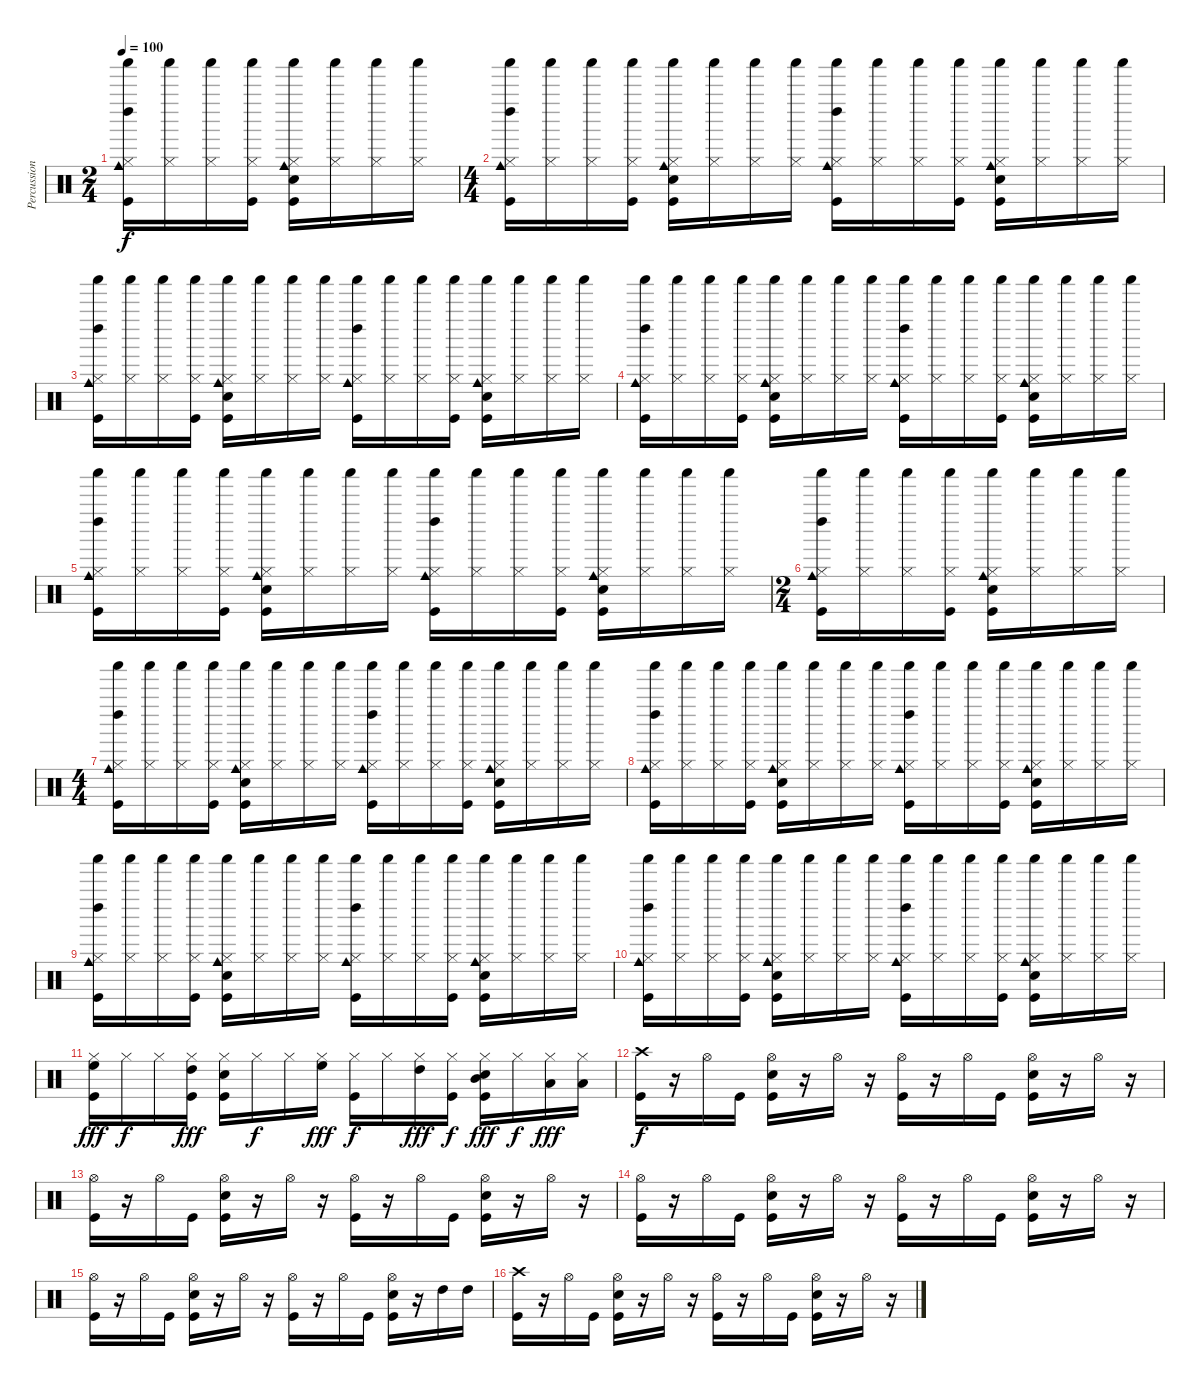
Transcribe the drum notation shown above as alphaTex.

\track ("Percussions" "Percussion") {instrument percussion}
\staff {score}
\articulation defaults
\ts (2 4)
\tempo 100
\clef neutral
\ks c
("Hi-Hat (closed)" "Kick (hit)" "Left Maraca (hit)" "Cowbell medium (hit)" "Shaker (hit)").16{dy f} ("Hi-Hat (closed)" "Shaker (hit)").16 ("Hi-Hat (closed)" "Shaker (hit)").16 ("Hi-Hat (closed)" "Kick (hit)" "Shaker (hit)").16 ("Hi-Hat (closed)" "Electric Snare (hit)" "Kick (hit)" "Cowbell medium (hit)" "Shaker (hit)").16 ("Hi-Hat (closed)" "Shaker (hit)").16 ("Hi-Hat (closed)" "Shaker (hit)").16 ("Hi-Hat (closed)" "Shaker (hit)").16 |
\ts (4 4)
("Hi-Hat (closed)" "Kick (hit)" "Left Maraca (hit)" "Cowbell medium (hit)" "Shaker (hit)").16 ("Hi-Hat (closed)" "Shaker (hit)").16 ("Hi-Hat (closed)" "Shaker (hit)").16 ("Hi-Hat (closed)" "Kick (hit)" "Shaker (hit)").16 ("Hi-Hat (closed)" "Electric Snare (hit)" "Kick (hit)" "Cowbell medium (hit)" "Shaker (hit)").16 ("Hi-Hat (closed)" "Shaker (hit)").16 ("Hi-Hat (closed)" "Shaker (hit)").16 ("Hi-Hat (closed)" "Shaker (hit)").16 ("Hi-Hat (closed)" "Kick (hit)" "Left Maraca (hit)" "Cowbell medium (hit)" "Shaker (hit)").16 ("Hi-Hat (closed)" "Shaker (hit)").16 ("Hi-Hat (closed)" "Shaker (hit)").16 ("Hi-Hat (closed)" "Kick (hit)" "Shaker (hit)").16 ("Hi-Hat (closed)" "Electric Snare (hit)" "Kick (hit)" "Cowbell medium (hit)" "Shaker (hit)").16 ("Hi-Hat (closed)" "Shaker (hit)").16 ("Hi-Hat (closed)" "Shaker (hit)").16 ("Hi-Hat (closed)" "Shaker (hit)").16 |
("Hi-Hat (closed)" "Kick (hit)" "Left Maraca (hit)" "Cowbell medium (hit)" "Shaker (hit)").16 ("Hi-Hat (closed)" "Shaker (hit)").16 ("Hi-Hat (closed)" "Shaker (hit)").16 ("Hi-Hat (closed)" "Kick (hit)" "Shaker (hit)").16 ("Hi-Hat (closed)" "Electric Snare (hit)" "Kick (hit)" "Cowbell medium (hit)" "Shaker (hit)").16 ("Hi-Hat (closed)" "Shaker (hit)").16 ("Hi-Hat (closed)" "Shaker (hit)").16 ("Hi-Hat (closed)" "Shaker (hit)").16 ("Hi-Hat (closed)" "Kick (hit)" "Left Maraca (hit)" "Cowbell medium (hit)" "Shaker (hit)").16 ("Hi-Hat (closed)" "Shaker (hit)").16 ("Hi-Hat (closed)" "Shaker (hit)").16 ("Hi-Hat (closed)" "Kick (hit)" "Shaker (hit)").16 ("Hi-Hat (closed)" "Electric Snare (hit)" "Kick (hit)" "Cowbell medium (hit)" "Shaker (hit)").16 ("Hi-Hat (closed)" "Shaker (hit)").16 ("Hi-Hat (closed)" "Shaker (hit)").16 ("Hi-Hat (closed)" "Shaker (hit)").16 |
("Hi-Hat (closed)" "Kick (hit)" "Left Maraca (hit)" "Cowbell medium (hit)" "Shaker (hit)").16 ("Hi-Hat (closed)" "Shaker (hit)").16 ("Hi-Hat (closed)" "Shaker (hit)").16 ("Hi-Hat (closed)" "Kick (hit)" "Shaker (hit)").16 ("Hi-Hat (closed)" "Electric Snare (hit)" "Kick (hit)" "Cowbell medium (hit)" "Shaker (hit)").16 ("Hi-Hat (closed)" "Shaker (hit)").16 ("Hi-Hat (closed)" "Shaker (hit)").16 ("Hi-Hat (closed)" "Shaker (hit)").16 ("Hi-Hat (closed)" "Kick (hit)" "Left Maraca (hit)" "Cowbell medium (hit)" "Shaker (hit)").16 ("Hi-Hat (closed)" "Shaker (hit)").16 ("Hi-Hat (closed)" "Shaker (hit)").16 ("Hi-Hat (closed)" "Kick (hit)" "Shaker (hit)").16 ("Hi-Hat (closed)" "Electric Snare (hit)" "Kick (hit)" "Cowbell medium (hit)" "Shaker (hit)").16 ("Hi-Hat (closed)" "Shaker (hit)").16 ("Hi-Hat (closed)" "Shaker (hit)").16 ("Hi-Hat (closed)" "Shaker (hit)").16 |
("Hi-Hat (closed)" "Kick (hit)" "Left Maraca (hit)" "Cowbell medium (hit)" "Shaker (hit)").16 ("Hi-Hat (closed)" "Shaker (hit)").16 ("Hi-Hat (closed)" "Shaker (hit)").16 ("Hi-Hat (closed)" "Kick (hit)" "Shaker (hit)").16 ("Hi-Hat (closed)" "Electric Snare (hit)" "Kick (hit)" "Cowbell medium (hit)" "Shaker (hit)").16 ("Hi-Hat (closed)" "Shaker (hit)").16 ("Hi-Hat (closed)" "Shaker (hit)").16 ("Hi-Hat (closed)" "Shaker (hit)").16 ("Hi-Hat (closed)" "Kick (hit)" "Left Maraca (hit)" "Cowbell medium (hit)" "Shaker (hit)").16 ("Hi-Hat (closed)" "Shaker (hit)").16 ("Hi-Hat (closed)" "Shaker (hit)").16 ("Hi-Hat (closed)" "Kick (hit)" "Shaker (hit)").16 ("Hi-Hat (closed)" "Electric Snare (hit)" "Kick (hit)" "Cowbell medium (hit)" "Shaker (hit)").16 ("Hi-Hat (closed)" "Shaker (hit)").16 ("Hi-Hat (closed)" "Shaker (hit)").16 ("Hi-Hat (closed)" "Shaker (hit)").16 |
\ts (2 4)
("Hi-Hat (closed)" "Kick (hit)" "Left Maraca (hit)" "Cowbell medium (hit)" "Shaker (hit)").16 ("Hi-Hat (closed)" "Shaker (hit)").16 ("Hi-Hat (closed)" "Shaker (hit)").16 ("Hi-Hat (closed)" "Kick (hit)" "Shaker (hit)").16 ("Hi-Hat (closed)" "Electric Snare (hit)" "Kick (hit)" "Cowbell medium (hit)" "Shaker (hit)").16 ("Hi-Hat (closed)" "Shaker (hit)").16 ("Hi-Hat (closed)" "Shaker (hit)").16 ("Hi-Hat (closed)" "Shaker (hit)").16 |
\ts (4 4)
("Hi-Hat (closed)" "Kick (hit)" "Left Maraca (hit)" "Cowbell medium (hit)" "Shaker (hit)").16 ("Hi-Hat (closed)" "Shaker (hit)").16 ("Hi-Hat (closed)" "Shaker (hit)").16 ("Hi-Hat (closed)" "Kick (hit)" "Shaker (hit)").16 ("Hi-Hat (closed)" "Electric Snare (hit)" "Kick (hit)" "Cowbell medium (hit)" "Shaker (hit)").16 ("Hi-Hat (closed)" "Shaker (hit)").16 ("Hi-Hat (closed)" "Shaker (hit)").16 ("Hi-Hat (closed)" "Shaker (hit)").16 ("Hi-Hat (closed)" "Kick (hit)" "Left Maraca (hit)" "Cowbell medium (hit)" "Shaker (hit)").16 ("Hi-Hat (closed)" "Shaker (hit)").16 ("Hi-Hat (closed)" "Shaker (hit)").16 ("Hi-Hat (closed)" "Kick (hit)" "Shaker (hit)").16 ("Hi-Hat (closed)" "Electric Snare (hit)" "Kick (hit)" "Cowbell medium (hit)" "Shaker (hit)").16 ("Hi-Hat (closed)" "Shaker (hit)").16 ("Hi-Hat (closed)" "Shaker (hit)").16 ("Hi-Hat (closed)" "Shaker (hit)").16 |
("Hi-Hat (closed)" "Kick (hit)" "Left Maraca (hit)" "Cowbell medium (hit)" "Shaker (hit)").16 ("Hi-Hat (closed)" "Shaker (hit)").16 ("Hi-Hat (closed)" "Shaker (hit)").16 ("Hi-Hat (closed)" "Kick (hit)" "Shaker (hit)").16 ("Hi-Hat (closed)" "Electric Snare (hit)" "Kick (hit)" "Cowbell medium (hit)" "Shaker (hit)").16 ("Hi-Hat (closed)" "Shaker (hit)").16 ("Hi-Hat (closed)" "Shaker (hit)").16 ("Hi-Hat (closed)" "Shaker (hit)").16 ("Hi-Hat (closed)" "Kick (hit)" "Left Maraca (hit)" "Cowbell medium (hit)" "Shaker (hit)").16 ("Hi-Hat (closed)" "Shaker (hit)").16 ("Hi-Hat (closed)" "Shaker (hit)").16 ("Hi-Hat (closed)" "Kick (hit)" "Shaker (hit)").16 ("Hi-Hat (closed)" "Electric Snare (hit)" "Kick (hit)" "Cowbell medium (hit)" "Shaker (hit)").16 ("Hi-Hat (closed)" "Shaker (hit)").16 ("Hi-Hat (closed)" "Shaker (hit)").16 ("Hi-Hat (closed)" "Shaker (hit)").16 |
("Hi-Hat (closed)" "Kick (hit)" "Left Maraca (hit)" "Cowbell medium (hit)" "Shaker (hit)").16 ("Hi-Hat (closed)" "Shaker (hit)").16 ("Hi-Hat (closed)" "Shaker (hit)").16 ("Hi-Hat (closed)" "Kick (hit)" "Shaker (hit)").16 ("Hi-Hat (closed)" "Electric Snare (hit)" "Kick (hit)" "Cowbell medium (hit)" "Shaker (hit)").16 ("Hi-Hat (closed)" "Shaker (hit)").16 ("Hi-Hat (closed)" "Shaker (hit)").16 ("Hi-Hat (closed)" "Shaker (hit)").16 ("Hi-Hat (closed)" "Kick (hit)" "Left Maraca (hit)" "Cowbell medium (hit)" "Shaker (hit)").16 ("Hi-Hat (closed)" "Shaker (hit)").16 ("Hi-Hat (closed)" "Shaker (hit)").16 ("Hi-Hat (closed)" "Kick (hit)" "Shaker (hit)").16 ("Hi-Hat (closed)" "Electric Snare (hit)" "Kick (hit)" "Cowbell medium (hit)" "Shaker (hit)").16 ("Hi-Hat (closed)" "Shaker (hit)").16 ("Hi-Hat (closed)" "Shaker (hit)").16 ("Hi-Hat (closed)" "Shaker (hit)").16 |
("Hi-Hat (closed)" "Kick (hit)" "Left Maraca (hit)" "Cowbell medium (hit)" "Shaker (hit)").16 ("Hi-Hat (closed)" "Shaker (hit)").16 ("Hi-Hat (closed)" "Shaker (hit)").16 ("Hi-Hat (closed)" "Kick (hit)" "Shaker (hit)").16 ("Hi-Hat (closed)" "Electric Snare (hit)" "Kick (hit)" "Cowbell medium (hit)" "Shaker (hit)").16 ("Hi-Hat (closed)" "Shaker (hit)").16 ("Hi-Hat (closed)" "Shaker (hit)").16 ("Hi-Hat (closed)" "Shaker (hit)").16 ("Hi-Hat (closed)" "Kick (hit)" "Left Maraca (hit)" "Cowbell medium (hit)" "Shaker (hit)").16 ("Hi-Hat (closed)" "Shaker (hit)").16 ("Hi-Hat (closed)" "Shaker (hit)").16 ("Hi-Hat (closed)" "Kick (hit)" "Shaker (hit)").16 ("Hi-Hat (closed)" "Electric Snare (hit)" "Kick (hit)" "Cowbell medium (hit)" "Shaker (hit)").16 ("Hi-Hat (closed)" "Shaker (hit)").16 ("Hi-Hat (closed)" "Shaker (hit)").16 ("Hi-Hat (closed)" "Shaker (hit)").16 |
("Hi-Hat (closed)" "High Floor Tom (hit)" "Kick (hit)").16{dy fff} "Hi-Hat (closed)".16{dy f} "Hi-Hat (closed)".16 ("Hi-Hat (closed)" "High Tom (hit)" "Kick (hit)").16{dy fff} ("Hi-Hat (closed)" "Electric Snare (hit)" "Kick (hit)").16 "Hi-Hat (closed)".16{dy f} "Hi-Hat (closed)".16 ("Hi-Hat (closed)" "High Floor Tom (hit)").16{dy fff} ("Hi-Hat (closed)" "Kick (hit)").16{dy f} "Hi-Hat (closed)".16 ("Hi-Hat (closed)" "High Tom (hit)").16{dy fff} ("Hi-Hat (closed)" "Kick (hit)").16{dy f} ("Hi-Hat (closed)" "Electric Snare (hit)" "Kick (hit)" "Mid Tom (hit)").16{dy fff} "Hi-Hat (closed)".16{dy f} ("Hi-Hat (closed)" "Low Tom (hit)").16{dy fff} ("Hi-Hat (closed)" "Low Tom (hit)").16 |
("Crash high (hit)" "Kick (hit)").16{dy f} r.16 "Hi-Hat (open)".16 "Kick (hit)".16 ("Hi-Hat (open)" "Electric Snare (hit)" "Kick (hit)").16 r.16 "Hi-Hat (open)".16 r.16 ("Hi-Hat (open)" "Kick (hit)").16 r.16 "Hi-Hat (open)".16 "Kick (hit)".16 ("Hi-Hat (open)" "Electric Snare (hit)" "Kick (hit)").16 r.16 "Hi-Hat (open)".16 r.16 |
("Hi-Hat (open)" "Kick (hit)").16 r.16 "Hi-Hat (open)".16 "Kick (hit)".16 ("Hi-Hat (open)" "Electric Snare (hit)" "Kick (hit)").16 r.16 "Hi-Hat (open)".16 r.16 ("Hi-Hat (open)" "Kick (hit)").16 r.16 "Hi-Hat (open)".16 "Kick (hit)".16 ("Hi-Hat (open)" "Electric Snare (hit)" "Kick (hit)").16 r.16 "Hi-Hat (open)".16 r.16 |
("Hi-Hat (open)" "Kick (hit)").16 r.16 "Hi-Hat (open)".16 "Kick (hit)".16 ("Hi-Hat (open)" "Electric Snare (hit)" "Kick (hit)").16 r.16 "Hi-Hat (open)".16 r.16 ("Hi-Hat (open)" "Kick (hit)").16 r.16 "Hi-Hat (open)".16 "Kick (hit)".16 ("Hi-Hat (open)" "Electric Snare (hit)" "Kick (hit)").16 r.16 "Hi-Hat (open)".16 r.16 |
("Hi-Hat (open)" "Kick (hit)").16 r.16 "Hi-Hat (open)".16 "Kick (hit)".16 ("Hi-Hat (open)" "Electric Snare (hit)" "Kick (hit)").16 r.16 "Hi-Hat (open)".16 r.16 ("Hi-Hat (open)" "Kick (hit)").16 r.16 "Hi-Hat (open)".16 "Kick (hit)".16 ("Hi-Hat (open)" "Electric Snare (hit)" "Kick (hit)").16 r.16 "High Tom (hit)".16 "High Tom (hit)".16 |
("Crash high (hit)" "Kick (hit)").16 r.16 "Hi-Hat (open)".16 "Kick (hit)".16 ("Hi-Hat (open)" "Electric Snare (hit)" "Kick (hit)").16 r.16 "Hi-Hat (open)".16 r.16 ("Hi-Hat (open)" "Kick (hit)").16 r.16 "Hi-Hat (open)".16 "Kick (hit)".16 ("Hi-Hat (open)" "Electric Snare (hit)" "Kick (hit)").16 r.16 "Hi-Hat (open)".16 r.16
